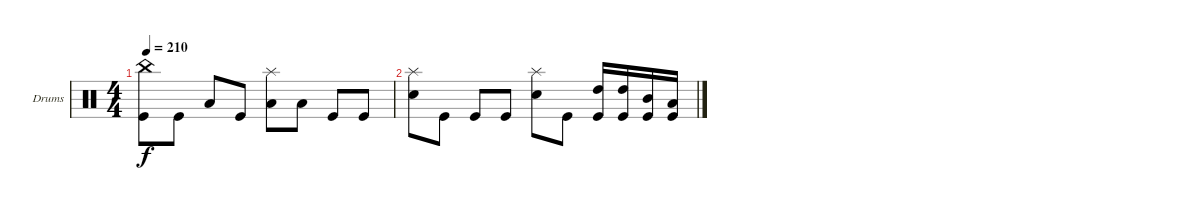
\defaultSystemsLayout 4
\bracketExtendMode groupsimilarinstruments
\firstSystemTrackNameOrientation horizontal
\otherSystemsTrackNameOrientation horizontal
\track ("Drumkit" "Drums") {instrument percussion}
\staff {score}
\articulation defaults
\ts (4 4)
\tempo 210
\clef neutral
\ks c
("China (hit)" "Kick (hit)").8{dy f} "Kick (hit)".8 "Low Tom (hit)".8 "Kick (hit)".8 ("Splash (hit)" "Low Tom (hit)").8 "Low Tom (hit)".8 "Kick (hit)".8 "Kick (hit)".8 |
("Splash (hit)" "Snare (hit) 2").8 "Kick (hit)".8 "Kick (hit)".8 "Kick (hit)".8 ("Snare (hit) 2" "Splash (hit)").8 "Kick (hit)".8 ("High Tom (hit)" "Kick (hit)").16 ("High Tom (hit)" "Kick (hit)").16 ("Mid Tom (hit)" "Kick (hit)").16 ("Low Tom (hit)" "Kick (hit)").16
